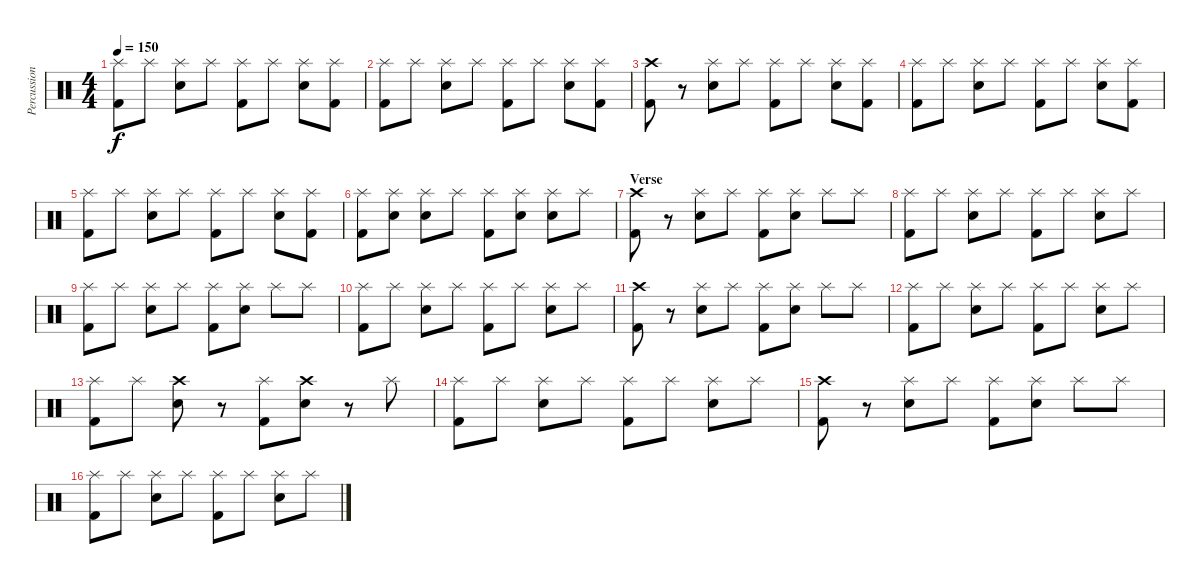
\track ("Percussion" "Percussion") {instrument percussion}
\staff {score}
\articulation defaults
\ts (4 4)
\tempo 150
\clef neutral
\ks c
("Splash (hit)" "Kick (hit) 2").8{dy f} "Splash (hit)".8 ("Splash (hit)" "Electric Snare (hit)").8 "Splash (hit)".8 ("Splash (hit)" "Kick (hit) 2").8 "Splash (hit)".8 ("Splash (hit)" "Electric Snare (hit)").8 ("Splash (hit)" "Kick (hit) 2").8 |
("Splash (hit)" "Kick (hit) 2").8 "Splash (hit)".8 ("Splash (hit)" "Electric Snare (hit)").8 "Splash (hit)".8 ("Splash (hit)" "Kick (hit) 2").8 "Splash (hit)".8 ("Splash (hit)" "Electric Snare (hit)").8 ("Splash (hit)" "Kick (hit) 2").8 |
("Crash high (hit)" "Kick (hit) 2").8 r.8 ("Splash (hit)" "Electric Snare (hit)").8 "Splash (hit)".8 ("Splash (hit)" "Kick (hit) 2").8 "Splash (hit)".8 ("Splash (hit)" "Electric Snare (hit)").8 ("Splash (hit)" "Kick (hit) 2").8 |
("Splash (hit)" "Kick (hit) 2").8 "Splash (hit)".8 ("Splash (hit)" "Electric Snare (hit)").8 "Splash (hit)".8 ("Splash (hit)" "Kick (hit) 2").8 "Splash (hit)".8 ("Splash (hit)" "Electric Snare (hit)").8 ("Splash (hit)" "Kick (hit) 2").8 |
("Splash (hit)" "Kick (hit) 2").8 "Splash (hit)".8 ("Splash (hit)" "Electric Snare (hit)").8 "Splash (hit)".8 ("Splash (hit)" "Kick (hit) 2").8 "Splash (hit)".8 ("Splash (hit)" "Electric Snare (hit)").8 ("Splash (hit)" "Kick (hit) 2").8 |
("Splash (hit)" "Kick (hit) 2").8 ("Splash (hit)" "Electric Snare (hit)").8 ("Splash (hit)" "Electric Snare (hit)").8 "Splash (hit)".8 ("Splash (hit)" "Kick (hit) 2").8 ("Splash (hit)" "Electric Snare (hit)").8 ("Splash (hit)" "Electric Snare (hit)").8 "Splash (hit)".8 |
\section ("" "Verse")
("Crash high (hit)" "Kick (hit) 2").8 r.8 ("Splash (hit)" "Electric Snare (hit)").8 "Splash (hit)".8 ("Splash (hit)" "Kick (hit) 2").8 ("Splash (hit)" "Electric Snare (hit)").8 "Splash (hit)".8 "Splash (hit)".8 |
("Splash (hit)" "Kick (hit) 2").8 "Splash (hit)".8 ("Splash (hit)" "Electric Snare (hit)").8 "Splash (hit)".8 ("Splash (hit)" "Kick (hit) 2").8 "Splash (hit)".8 ("Splash (hit)" "Electric Snare (hit)").8 "Splash (hit)".8 |
("Splash (hit)" "Kick (hit) 2").8 "Splash (hit)".8 ("Splash (hit)" "Electric Snare (hit)").8 "Splash (hit)".8 ("Splash (hit)" "Kick (hit) 2").8 ("Splash (hit)" "Electric Snare (hit)").8 "Splash (hit)".8 "Splash (hit)".8 |
("Splash (hit)" "Kick (hit) 2").8 "Splash (hit)".8 ("Splash (hit)" "Electric Snare (hit)").8 "Splash (hit)".8 ("Splash (hit)" "Kick (hit) 2").8 "Splash (hit)".8 ("Splash (hit)" "Electric Snare (hit)").8 "Splash (hit)".8 |
("Crash high (hit)" "Kick (hit) 2").8 r.8 ("Splash (hit)" "Electric Snare (hit)").8 "Splash (hit)".8 ("Splash (hit)" "Kick (hit) 2").8 ("Splash (hit)" "Electric Snare (hit)").8 "Splash (hit)".8 "Splash (hit)".8 |
("Splash (hit)" "Kick (hit) 2").8 "Splash (hit)".8 ("Splash (hit)" "Electric Snare (hit)").8 "Splash (hit)".8 ("Splash (hit)" "Kick (hit) 2").8 "Splash (hit)".8 ("Splash (hit)" "Electric Snare (hit)").8 "Splash (hit)".8 |
("Splash (hit)" "Kick (hit) 2").8 "Splash (hit)".8 ("Crash high (hit)" "Electric Snare (hit)").8 r.8 ("Splash (hit)" "Kick (hit) 2").8 ("Crash high (hit)" "Electric Snare (hit)").8 r.8 "Splash (hit)".8 |
("Splash (hit)" "Kick (hit) 2").8 "Splash (hit)".8 ("Splash (hit)" "Electric Snare (hit)").8 "Splash (hit)".8 ("Splash (hit)" "Kick (hit) 2").8 "Splash (hit)".8 ("Splash (hit)" "Electric Snare (hit)").8 "Splash (hit)".8 |
("Crash high (hit)" "Kick (hit) 2").8 r.8 ("Splash (hit)" "Electric Snare (hit)").8 "Splash (hit)".8 ("Splash (hit)" "Kick (hit) 2").8 ("Splash (hit)" "Electric Snare (hit)").8 "Splash (hit)".8 "Splash (hit)".8 |
("Splash (hit)" "Kick (hit) 2").8 "Splash (hit)".8 ("Splash (hit)" "Electric Snare (hit)").8 "Splash (hit)".8 ("Splash (hit)" "Kick (hit) 2").8 "Splash (hit)".8 ("Splash (hit)" "Electric Snare (hit)").8 "Splash (hit)".8
